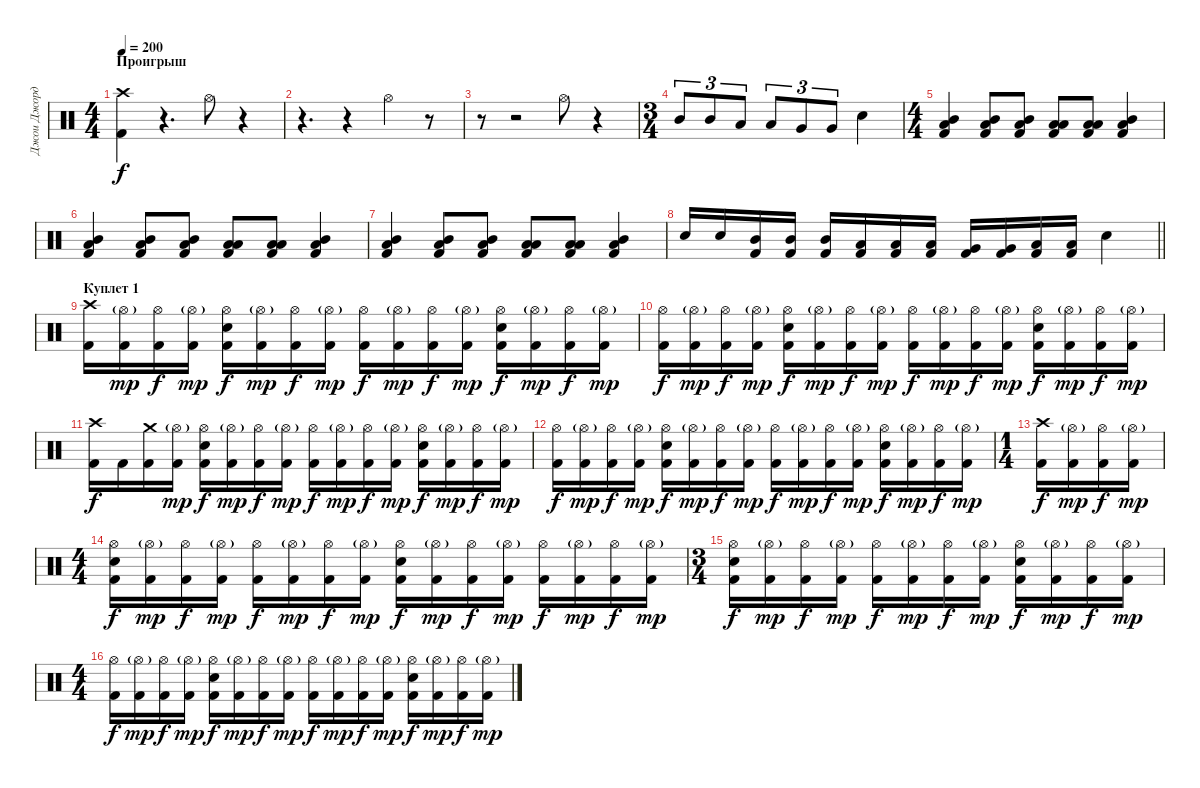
\track ("Джои Джордисон" "Джои Джорд") {instrument percussion}
\staff {score}
\articulation defaults
\ts (4 4)
\section ("" "Проигрыш")
\tempo 200
\clef neutral
\ks c
("Crash high (hit)" "Kick (hit) 2").4{dy f} r.4{d} "Hi-Hat (open)".8 r.4 |
r.4{d} r.4 "Hi-Hat (open)".4 r.8 |
r.8 r.2 "Hi-Hat (open)".8 r.4 |
\ts (3 4)
"Mid Tom (hit)".8{tu (3 2)} "Mid Tom (hit)".8{tu (3 2)} "Low Tom (hit)".8{tu (3 2)} "Low Tom (hit)".8{tu (3 2)} "Very Low Tom (hit)".8{tu (3 2)} "Very Low Tom (hit)".8{tu (3 2)} "Electric Snare (hit)".4 |
\ts (4 4)
("Low Floor Tom (hit)" "Mid Tom (hit)" "Kick (hit) 2").4 ("Low Floor Tom (hit)" "Mid Tom (hit)" "Kick (hit) 2").8 ("Low Floor Tom (hit)" "Mid Tom (hit)" "Kick (hit) 2").8 ("Low Floor Tom (hit)" "Low Tom (hit)" "Kick (hit) 2").8 ("Low Floor Tom (hit)" "Low Tom (hit)" "Kick (hit) 2").8 ("Low Floor Tom (hit)" "Mid Tom (hit)" "Kick (hit) 2").4 |
("Low Floor Tom (hit)" "Mid Tom (hit)" "Kick (hit) 2").4 ("Low Floor Tom (hit)" "Mid Tom (hit)" "Kick (hit) 2").8 ("Low Floor Tom (hit)" "Mid Tom (hit)" "Kick (hit) 2").8 ("Low Floor Tom (hit)" "Low Tom (hit)" "Kick (hit) 2").8 ("Low Floor Tom (hit)" "Low Tom (hit)" "Kick (hit) 2").8 ("Low Floor Tom (hit)" "Mid Tom (hit)" "Kick (hit) 2").4 |
("Low Floor Tom (hit)" "Mid Tom (hit)" "Kick (hit) 2").4 ("Low Floor Tom (hit)" "Mid Tom (hit)" "Kick (hit) 2").8 ("Low Floor Tom (hit)" "Mid Tom (hit)" "Kick (hit) 2").8 ("Low Floor Tom (hit)" "Low Tom (hit)" "Kick (hit) 2").8 ("Low Floor Tom (hit)" "Low Tom (hit)" "Kick (hit) 2").8 ("Low Floor Tom (hit)" "Mid Tom (hit)" "Kick (hit) 2").4 |
\barLineRight lightlight "Electric Snare (hit)".16 "Electric Snare (hit)".16
("Mid Tom (hit)" "Kick (hit) 2").16 ("Mid Tom (hit)" "Kick (hit) 2").16 ("Mid Tom (hit)" "Kick (hit) 2").16 ("Low Tom (hit)" "Kick (hit) 2").16 ("Low Tom (hit)" "Kick (hit) 2").16 ("Low Tom (hit)" "Kick (hit) 2").16 ("Very Low Tom (hit)" "Kick (hit) 2").16 ("Very Low Tom (hit)" "Kick (hit) 2").16 ("Low Floor Tom (hit)" "Kick (hit) 2").16 ("Low Floor Tom (hit)" "Kick (hit) 2").16 "Electric Snare (hit)".4 |
\section ("" "Куплет 1")
("Crash high (hit)" "Kick (hit) 2").16 ("Hi-Hat (open)"{g} "Kick (hit) 2").16{dy mp} ("Hi-Hat (open)" "Kick (hit) 2").16{dy f} ("Hi-Hat (open)"{g} "Kick (hit) 2").16{dy mp} ("Hi-Hat (open)" "Electric Snare (hit)" "Kick (hit) 2").16{dy f} ("Hi-Hat (open)"{g} "Kick (hit) 2").16{dy mp} ("Hi-Hat (open)" "Kick (hit) 2").16{dy f} ("Hi-Hat (open)"{g} "Kick (hit) 2").16{dy mp} ("Hi-Hat (open)" "Kick (hit) 2").16{dy f} ("Hi-Hat (open)"{g} "Kick (hit) 2").16{dy mp} ("Hi-Hat (open)" "Kick (hit) 2").16{dy f} ("Hi-Hat (open)"{g} "Kick (hit) 2").16{dy mp} ("Hi-Hat (open)" "Electric Snare (hit)" "Kick (hit) 2").16{dy f} ("Hi-Hat (open)"{g} "Kick (hit) 2").16{dy mp} ("Hi-Hat (open)" "Kick (hit) 2").16{dy f} ("Hi-Hat (open)"{g} "Kick (hit) 2").16{dy mp} |
("Hi-Hat (open)" "Kick (hit) 2").16{dy f} ("Hi-Hat (open)"{g} "Kick (hit) 2").16{dy mp} ("Hi-Hat (open)" "Kick (hit) 2").16{dy f} ("Hi-Hat (open)"{g} "Kick (hit) 2").16{dy mp} ("Hi-Hat (open)" "Electric Snare (hit)" "Kick (hit) 2").16{dy f} ("Hi-Hat (open)"{g} "Kick (hit) 2").16{dy mp} ("Hi-Hat (open)" "Kick (hit) 2").16{dy f} ("Hi-Hat (open)"{g} "Kick (hit) 2").16{dy mp} ("Hi-Hat (open)" "Kick (hit) 2").16{dy f} ("Hi-Hat (open)"{g} "Kick (hit) 2").16{dy mp} ("Hi-Hat (open)" "Kick (hit) 2").16{dy f} ("Hi-Hat (open)"{g} "Kick (hit) 2").16{dy mp} ("Hi-Hat (open)" "Electric Snare (hit)" "Kick (hit) 2").16{dy f} ("Hi-Hat (open)"{g} "Kick (hit) 2").16{dy mp} ("Hi-Hat (open)" "Kick (hit) 2").16{dy f} ("Hi-Hat (open)"{g} "Kick (hit) 2").16{dy mp} |
("Crash high (hit)" "Kick (hit) 2").16{dy f} "Kick (hit) 2".16 ("Crash medium (hit)" "Kick (hit) 2").16 ("Hi-Hat (open)"{g} "Kick (hit) 2").16{dy mp} ("Hi-Hat (open)" "Electric Snare (hit)" "Kick (hit) 2").16{dy f} ("Hi-Hat (open)"{g} "Kick (hit) 2").16{dy mp} ("Hi-Hat (open)" "Kick (hit) 2").16{dy f} ("Hi-Hat (open)"{g} "Kick (hit) 2").16{dy mp} ("Hi-Hat (open)" "Kick (hit) 2").16{dy f} ("Hi-Hat (open)"{g} "Kick (hit) 2").16{dy mp} ("Hi-Hat (open)" "Kick (hit) 2").16{dy f} ("Hi-Hat (open)"{g} "Kick (hit) 2").16{dy mp} ("Hi-Hat (open)" "Electric Snare (hit)" "Kick (hit) 2").16{dy f} ("Hi-Hat (open)"{g} "Kick (hit) 2").16{dy mp} ("Hi-Hat (open)" "Kick (hit) 2").16{dy f} ("Hi-Hat (open)"{g} "Kick (hit) 2").16{dy mp} |
("Hi-Hat (open)" "Kick (hit) 2").16{dy f} ("Hi-Hat (open)"{g} "Kick (hit) 2").16{dy mp} ("Hi-Hat (open)" "Kick (hit) 2").16{dy f} ("Hi-Hat (open)"{g} "Kick (hit) 2").16{dy mp} ("Hi-Hat (open)" "Electric Snare (hit)" "Kick (hit) 2").16{dy f} ("Hi-Hat (open)"{g} "Kick (hit) 2").16{dy mp} ("Hi-Hat (open)" "Kick (hit) 2").16{dy f} ("Hi-Hat (open)"{g} "Kick (hit) 2").16{dy mp} ("Hi-Hat (open)" "Kick (hit) 2").16{dy f} ("Hi-Hat (open)"{g} "Kick (hit) 2").16{dy mp} ("Hi-Hat (open)" "Kick (hit) 2").16{dy f} ("Hi-Hat (open)"{g} "Kick (hit) 2").16{dy mp} ("Hi-Hat (open)" "Electric Snare (hit)" "Kick (hit) 2").16{dy f} ("Hi-Hat (open)"{g} "Kick (hit) 2").16{dy mp} ("Hi-Hat (open)" "Kick (hit) 2").16{dy f} ("Hi-Hat (open)"{g} "Kick (hit) 2").16{dy mp} |
\ts (1 4)
("Crash high (hit)" "Kick (hit) 2").16{dy f} ("Hi-Hat (open)"{g} "Kick (hit) 2").16{dy mp} ("Hi-Hat (open)" "Kick (hit) 2").16{dy f} ("Hi-Hat (open)"{g} "Kick (hit) 2").16{dy mp} |
\ts (4 4)
("Hi-Hat (open)" "Electric Snare (hit)" "Kick (hit) 2").16{dy f} ("Hi-Hat (open)"{g} "Kick (hit) 2").16{dy mp} ("Hi-Hat (open)" "Kick (hit) 2").16{dy f} ("Hi-Hat (open)"{g} "Kick (hit) 2").16{dy mp} ("Hi-Hat (open)" "Kick (hit) 2").16{dy f} ("Hi-Hat (open)"{g} "Kick (hit) 2").16{dy mp} ("Hi-Hat (open)" "Kick (hit) 2").16{dy f} ("Hi-Hat (open)"{g} "Kick (hit) 2").16{dy mp} ("Hi-Hat (open)" "Electric Snare (hit)" "Kick (hit) 2").16{dy f} ("Hi-Hat (open)"{g} "Kick (hit) 2").16{dy mp} ("Hi-Hat (open)" "Kick (hit) 2").16{dy f} ("Hi-Hat (open)"{g} "Kick (hit) 2").16{dy mp} ("Hi-Hat (open)" "Kick (hit) 2").16{dy f} ("Hi-Hat (open)"{g} "Kick (hit) 2").16{dy mp} ("Hi-Hat (open)" "Kick (hit) 2").16{dy f} ("Hi-Hat (open)"{g} "Kick (hit) 2").16{dy mp} |
\ts (3 4)
("Hi-Hat (open)" "Electric Snare (hit)" "Kick (hit) 2").16{dy f} ("Hi-Hat (open)"{g} "Kick (hit) 2").16{dy mp} ("Hi-Hat (open)" "Kick (hit) 2").16{dy f} ("Hi-Hat (open)"{g} "Kick (hit) 2").16{dy mp} ("Hi-Hat (open)" "Kick (hit) 2").16{dy f} ("Hi-Hat (open)"{g} "Kick (hit) 2").16{dy mp} ("Hi-Hat (open)" "Kick (hit) 2").16{dy f} ("Hi-Hat (open)"{g} "Kick (hit) 2").16{dy mp} ("Hi-Hat (open)" "Electric Snare (hit)" "Kick (hit) 2").16{dy f} ("Hi-Hat (open)"{g} "Kick (hit) 2").16{dy mp} ("Hi-Hat (open)" "Kick (hit) 2").16{dy f} ("Hi-Hat (open)"{g} "Kick (hit) 2").16{dy mp} |
\ts (4 4)
("Hi-Hat (open)" "Kick (hit) 2").16{dy f} ("Hi-Hat (open)"{g} "Kick (hit) 2").16{dy mp} ("Hi-Hat (open)" "Kick (hit) 2").16{dy f} ("Hi-Hat (open)"{g} "Kick (hit) 2").16{dy mp} ("Hi-Hat (open)" "Electric Snare (hit)" "Kick (hit) 2").16{dy f} ("Hi-Hat (open)"{g} "Kick (hit) 2").16{dy mp} ("Hi-Hat (open)" "Kick (hit) 2").16{dy f} ("Hi-Hat (open)"{g} "Kick (hit) 2").16{dy mp} ("Hi-Hat (open)" "Kick (hit) 2").16{dy f} ("Hi-Hat (open)"{g} "Kick (hit) 2").16{dy mp} ("Hi-Hat (open)" "Kick (hit) 2").16{dy f} ("Hi-Hat (open)"{g} "Kick (hit) 2").16{dy mp} ("Hi-Hat (open)" "Electric Snare (hit)" "Kick (hit) 2").16{dy f} ("Hi-Hat (open)"{g} "Kick (hit) 2").16{dy mp} ("Hi-Hat (open)" "Kick (hit) 2").16{dy f} ("Hi-Hat (open)"{g} "Kick (hit) 2").16{dy mp}
